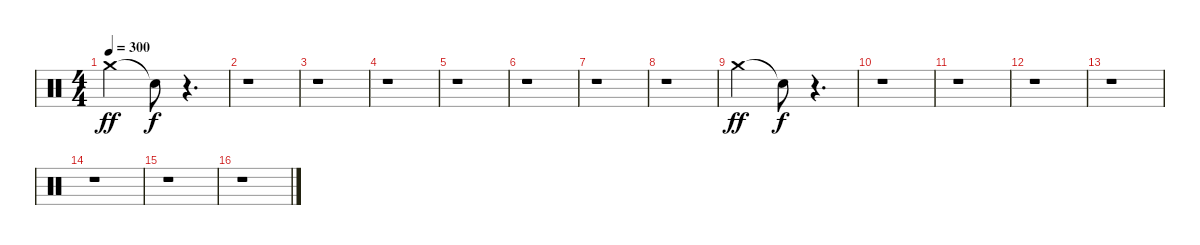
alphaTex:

\track "" {instrument percussion}
\staff {score}
\articulation defaults
\ts (4 4)
\tempo 300
\clef neutral
\ks c "Crash medium (hit)".2{dy ff} "Snare (hit)"{t}.8{dy f}
r.4{d} |
r.1 |
r.1 |
r.1 |
r.1 |
r.1 |
r.1 |
r.1 |
"Crash medium (hit)".2{dy ff} "Snare (hit)"{t}.8{dy f} r.4{d} |
r.1 |
r.1 |
r.1 |
r.1 |
r.1 |
r.1 |
r.1
